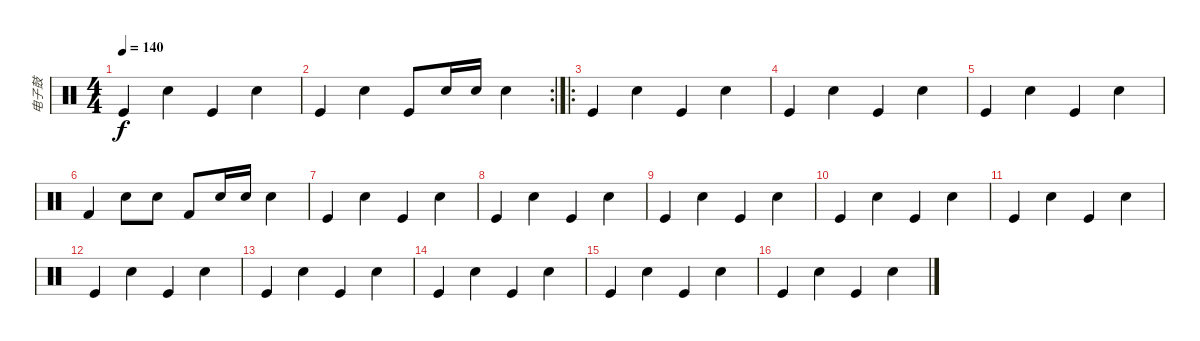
\track ("电子鼓" "电子鼓") {instrument percussion}
\staff {score}
\articulation defaults
\ts (4 4)
\tempo 140
\clef neutral
\ks c "Kick (hit)".4{dy f} "Snare (hit) 2".4 "Kick (hit)".4 "Snare (hit) 2".4
|
\rc 2 "Kick (hit)".4 "Snare (hit) 2".4 "Kick (hit)".8 "Snare (hit) 2".16 "Snare (hit) 2".16 "Electric Snare (hit)".4
|
\ro "Kick (hit)".4 "Snare (hit) 2".4 "Kick (hit)".4 "Snare (hit) 2".4
|
"Kick (hit)".4 "Snare (hit) 2".4 "Kick (hit)".4 "Snare (hit) 2".4 |
"Kick (hit)".4 "Snare (hit) 2".4 "Kick (hit)".4 "Snare (hit) 2".4 |
"Kick (hit) 2".4 "Snare (hit) 2".8 "Snare (hit) 2".8 "Kick (hit) 2".8 "Snare (hit) 2".16 "Snare (hit) 2".16 "Snare (hit) 2".4 |
"Kick (hit)".4 "Snare (hit) 2".4 "Kick (hit)".4 "Snare (hit) 2".4 |
"Kick (hit)".4 "Snare (hit) 2".4 "Kick (hit)".4 "Snare (hit) 2".4 |
"Kick (hit)".4 "Snare (hit) 2".4 "Kick (hit)".4 "Snare (hit) 2".4 |
"Kick (hit)".4 "Snare (hit) 2".4 "Kick (hit)".4 "Snare (hit) 2".4 |
"Kick (hit)".4 "Snare (hit) 2".4 "Kick (hit)".4 "Snare (hit) 2".4 |
"Kick (hit)".4 "Snare (hit) 2".4 "Kick (hit)".4 "Snare (hit) 2".4 |
"Kick (hit)".4 "Snare (hit) 2".4 "Kick (hit)".4 "Snare (hit) 2".4 |
"Kick (hit)".4 "Snare (hit) 2".4 "Kick (hit)".4 "Snare (hit) 2".4 |
"Kick (hit)".4 "Snare (hit) 2".4 "Kick (hit)".4 "Snare (hit) 2".4 |
"Kick (hit)".4 "Snare (hit) 2".4 "Kick (hit)".4 "Snare (hit) 2".4
